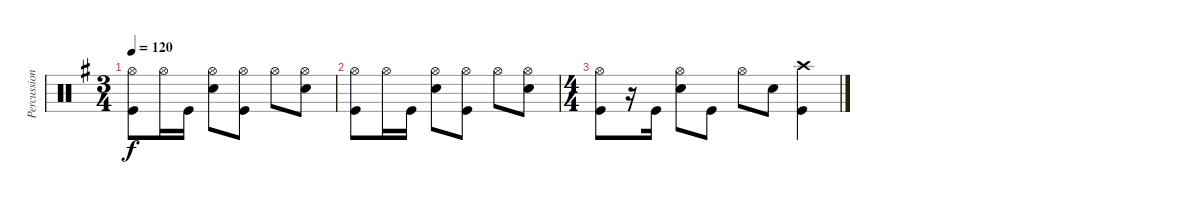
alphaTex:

\track ("Percussion" "Percussion") {instrument percussion}
\staff {score}
\articulation defaults
\ts (3 4)
\tempo 120
\clef neutral
\ks g
("Hi-Hat (open)" "Kick (hit)").8{dy f} "Hi-Hat (open)".16 "Kick (hit)".16 ("Hi-Hat (open)" "Snare (hit) 2").8 ("Hi-Hat (open)" "Kick (hit)").8 "Hi-Hat (open)".8 ("Hi-Hat (open)" "Snare (hit) 2").8 |
("Hi-Hat (open)" "Kick (hit)").8 "Hi-Hat (open)".16 "Kick (hit)".16 ("Hi-Hat (open)" "Snare (hit) 2").8 ("Hi-Hat (open)" "Kick (hit)").8 "Hi-Hat (open)".8 ("Hi-Hat (open)" "Snare (hit) 2").8 |
\ts (4 4)
("Hi-Hat (open)" "Kick (hit)").8 r.16 "Kick (hit)".16 ("Hi-Hat (open)" "Snare (hit) 2").8 "Kick (hit)".8 "Hi-Hat (open)".8 "Snare (hit) 2".8 ("Crash high (hit)" "Kick (hit)").4
